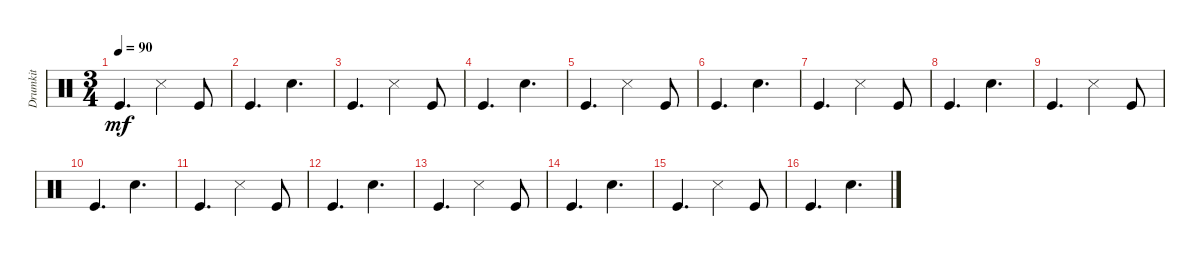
\track ("Drumkit" "Drumkit") {instrument percussion}
\staff {score}
\articulation defaults
\ts (3 4)
\tempo 90
\clef neutral
\ks c "Kick (hit)".4{d dy mf} "Snare (side stick) 3".4 "Kick (hit)".8
|
"Kick (hit)".4{d} "Snare (hit) 2".4{d} |
"Kick (hit)".4{d} "Snare (side stick) 3".4 "Kick (hit)".8 |
"Kick (hit)".4{d} "Snare (hit) 2".4{d} |
"Kick (hit)".4{d} "Snare (side stick) 3".4 "Kick (hit)".8 |
"Kick (hit)".4{d} "Snare (hit) 2".4{d} |
"Kick (hit)".4{d} "Snare (side stick) 3".4 "Kick (hit)".8 |
"Kick (hit)".4{d} "Snare (hit) 2".4{d} |
"Kick (hit)".4{d} "Snare (side stick) 3".4 "Kick (hit)".8 |
"Kick (hit)".4{d} "Snare (hit) 2".4{d} |
"Kick (hit)".4{d} "Snare (side stick) 3".4 "Kick (hit)".8 |
"Kick (hit)".4{d} "Snare (hit) 2".4{d} |
"Kick (hit)".4{d} "Snare (side stick) 3".4 "Kick (hit)".8 |
"Kick (hit)".4{d} "Snare (hit) 2".4{d} |
"Kick (hit)".4{d} "Snare (side stick) 3".4 "Kick (hit)".8 |
"Kick (hit)".4{d} "Snare (hit) 2".4{d}
